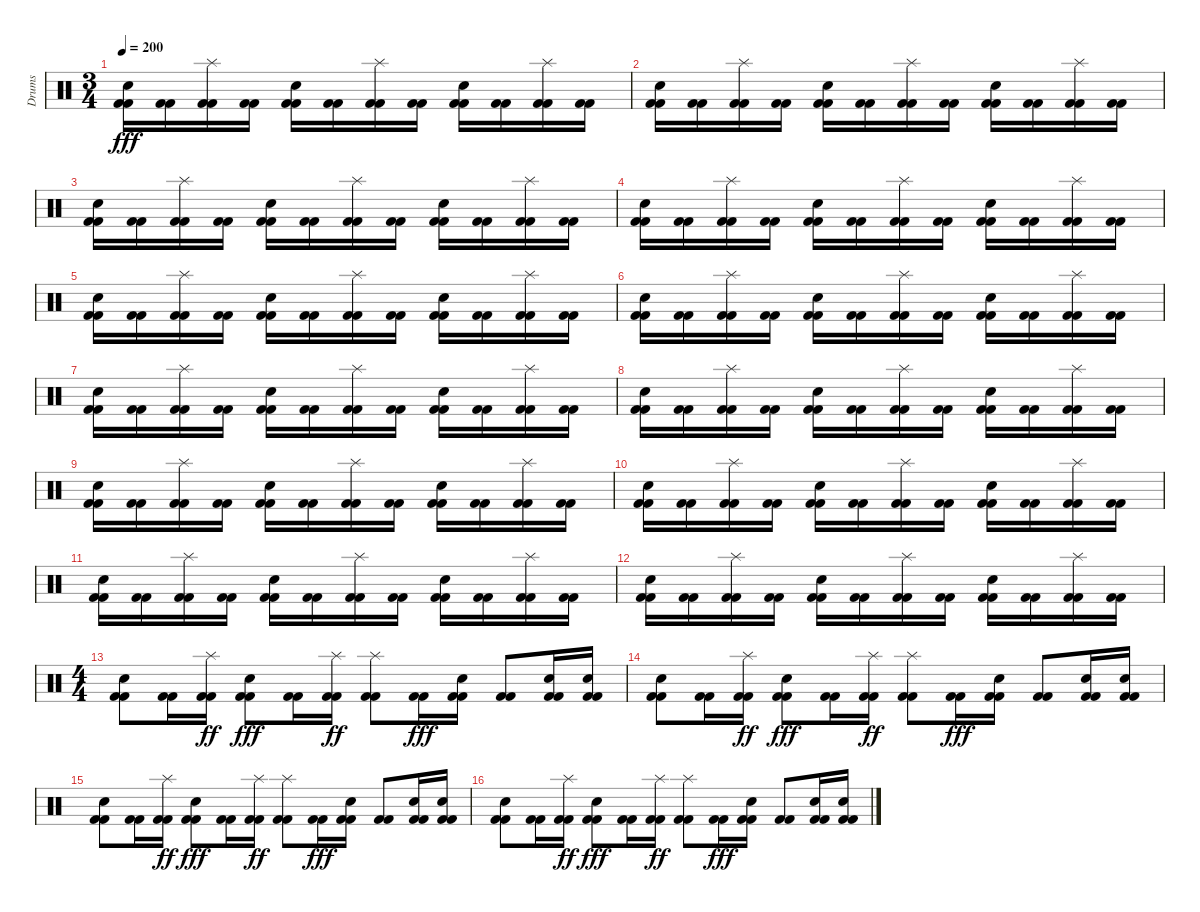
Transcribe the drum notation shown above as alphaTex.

\track ("Drums" "Drums") {instrument percussion}
\staff {score}
\articulation defaults
\ts (3 4)
\tempo 200
\clef neutral
\ks c
("Electric Snare (hit)" "Kick (hit) 2" "Kick (hit) 2").16{dy fff} ("Kick (hit) 2" "Kick (hit) 2").16 ("Splash (hit)" "Kick (hit) 2" "Kick (hit) 2").16 ("Kick (hit) 2" "Kick (hit) 2").16 ("Electric Snare (hit)" "Kick (hit) 2" "Kick (hit) 2").16 ("Kick (hit) 2" "Kick (hit) 2").16 ("Splash (hit)" "Kick (hit) 2" "Kick (hit) 2").16 ("Kick (hit) 2" "Kick (hit) 2").16 ("Electric Snare (hit)" "Kick (hit) 2" "Kick (hit) 2").16 ("Kick (hit) 2" "Kick (hit) 2").16 ("Splash (hit)" "Kick (hit) 2" "Kick (hit) 2").16 ("Kick (hit) 2" "Kick (hit) 2").16 |
("Electric Snare (hit)" "Kick (hit) 2" "Kick (hit) 2").16 ("Kick (hit) 2" "Kick (hit) 2").16 ("Splash (hit)" "Kick (hit) 2" "Kick (hit) 2").16 ("Kick (hit) 2" "Kick (hit) 2").16 ("Electric Snare (hit)" "Kick (hit) 2" "Kick (hit) 2").16 ("Kick (hit) 2" "Kick (hit) 2").16 ("Splash (hit)" "Kick (hit) 2" "Kick (hit) 2").16 ("Kick (hit) 2" "Kick (hit) 2").16 ("Electric Snare (hit)" "Kick (hit) 2" "Kick (hit) 2").16 ("Kick (hit) 2" "Kick (hit) 2").16 ("Splash (hit)" "Kick (hit) 2" "Kick (hit) 2").16 ("Kick (hit) 2" "Kick (hit) 2").16 |
("Electric Snare (hit)" "Kick (hit) 2" "Kick (hit) 2").16 ("Kick (hit) 2" "Kick (hit) 2").16 ("Splash (hit)" "Kick (hit) 2" "Kick (hit) 2").16 ("Kick (hit) 2" "Kick (hit) 2").16 ("Electric Snare (hit)" "Kick (hit) 2" "Kick (hit) 2").16 ("Kick (hit) 2" "Kick (hit) 2").16 ("Splash (hit)" "Kick (hit) 2" "Kick (hit) 2").16 ("Kick (hit) 2" "Kick (hit) 2").16 ("Electric Snare (hit)" "Kick (hit) 2" "Kick (hit) 2").16 ("Kick (hit) 2" "Kick (hit) 2").16 ("Splash (hit)" "Kick (hit) 2" "Kick (hit) 2").16 ("Kick (hit) 2" "Kick (hit) 2").16 |
("Electric Snare (hit)" "Kick (hit) 2" "Kick (hit) 2").16 ("Kick (hit) 2" "Kick (hit) 2").16 ("Splash (hit)" "Kick (hit) 2" "Kick (hit) 2").16 ("Kick (hit) 2" "Kick (hit) 2").16 ("Electric Snare (hit)" "Kick (hit) 2" "Kick (hit) 2").16 ("Kick (hit) 2" "Kick (hit) 2").16 ("Splash (hit)" "Kick (hit) 2" "Kick (hit) 2").16 ("Kick (hit) 2" "Kick (hit) 2").16 ("Electric Snare (hit)" "Kick (hit) 2" "Kick (hit) 2").16 ("Kick (hit) 2" "Kick (hit) 2").16 ("Splash (hit)" "Kick (hit) 2" "Kick (hit) 2").16 ("Kick (hit) 2" "Kick (hit) 2").16 |
("Electric Snare (hit)" "Kick (hit) 2" "Kick (hit) 2").16 ("Kick (hit) 2" "Kick (hit) 2").16 ("Splash (hit)" "Kick (hit) 2" "Kick (hit) 2").16 ("Kick (hit) 2" "Kick (hit) 2").16 ("Electric Snare (hit)" "Kick (hit) 2" "Kick (hit) 2").16 ("Kick (hit) 2" "Kick (hit) 2").16 ("Splash (hit)" "Kick (hit) 2" "Kick (hit) 2").16 ("Kick (hit) 2" "Kick (hit) 2").16 ("Electric Snare (hit)" "Kick (hit) 2" "Kick (hit) 2").16 ("Kick (hit) 2" "Kick (hit) 2").16 ("Splash (hit)" "Kick (hit) 2" "Kick (hit) 2").16 ("Kick (hit) 2" "Kick (hit) 2").16 |
("Electric Snare (hit)" "Kick (hit) 2" "Kick (hit) 2").16 ("Kick (hit) 2" "Kick (hit) 2").16 ("Splash (hit)" "Kick (hit) 2" "Kick (hit) 2").16 ("Kick (hit) 2" "Kick (hit) 2").16 ("Electric Snare (hit)" "Kick (hit) 2" "Kick (hit) 2").16 ("Kick (hit) 2" "Kick (hit) 2").16 ("Splash (hit)" "Kick (hit) 2" "Kick (hit) 2").16 ("Kick (hit) 2" "Kick (hit) 2").16 ("Electric Snare (hit)" "Kick (hit) 2" "Kick (hit) 2").16 ("Kick (hit) 2" "Kick (hit) 2").16 ("Splash (hit)" "Kick (hit) 2" "Kick (hit) 2").16 ("Kick (hit) 2" "Kick (hit) 2").16 |
("Electric Snare (hit)" "Kick (hit) 2" "Kick (hit) 2").16 ("Kick (hit) 2" "Kick (hit) 2").16 ("Splash (hit)" "Kick (hit) 2" "Kick (hit) 2").16 ("Kick (hit) 2" "Kick (hit) 2").16 ("Electric Snare (hit)" "Kick (hit) 2" "Kick (hit) 2").16 ("Kick (hit) 2" "Kick (hit) 2").16 ("Splash (hit)" "Kick (hit) 2" "Kick (hit) 2").16 ("Kick (hit) 2" "Kick (hit) 2").16 ("Electric Snare (hit)" "Kick (hit) 2" "Kick (hit) 2").16 ("Kick (hit) 2" "Kick (hit) 2").16 ("Splash (hit)" "Kick (hit) 2" "Kick (hit) 2").16 ("Kick (hit) 2" "Kick (hit) 2").16 |
("Electric Snare (hit)" "Kick (hit) 2" "Kick (hit) 2").16 ("Kick (hit) 2" "Kick (hit) 2").16 ("Splash (hit)" "Kick (hit) 2" "Kick (hit) 2").16 ("Kick (hit) 2" "Kick (hit) 2").16 ("Electric Snare (hit)" "Kick (hit) 2" "Kick (hit) 2").16 ("Kick (hit) 2" "Kick (hit) 2").16 ("Splash (hit)" "Kick (hit) 2" "Kick (hit) 2").16 ("Kick (hit) 2" "Kick (hit) 2").16 ("Electric Snare (hit)" "Kick (hit) 2" "Kick (hit) 2").16 ("Kick (hit) 2" "Kick (hit) 2").16 ("Splash (hit)" "Kick (hit) 2" "Kick (hit) 2").16 ("Kick (hit) 2" "Kick (hit) 2").16 |
("Electric Snare (hit)" "Kick (hit) 2" "Kick (hit) 2").16 ("Kick (hit) 2" "Kick (hit) 2").16 ("Splash (hit)" "Kick (hit) 2" "Kick (hit) 2").16 ("Kick (hit) 2" "Kick (hit) 2").16 ("Electric Snare (hit)" "Kick (hit) 2" "Kick (hit) 2").16 ("Kick (hit) 2" "Kick (hit) 2").16 ("Splash (hit)" "Kick (hit) 2" "Kick (hit) 2").16 ("Kick (hit) 2" "Kick (hit) 2").16 ("Electric Snare (hit)" "Kick (hit) 2" "Kick (hit) 2").16 ("Kick (hit) 2" "Kick (hit) 2").16 ("Splash (hit)" "Kick (hit) 2" "Kick (hit) 2").16 ("Kick (hit) 2" "Kick (hit) 2").16 |
("Electric Snare (hit)" "Kick (hit) 2" "Kick (hit) 2").16 ("Kick (hit) 2" "Kick (hit) 2").16 ("Splash (hit)" "Kick (hit) 2" "Kick (hit) 2").16 ("Kick (hit) 2" "Kick (hit) 2").16 ("Electric Snare (hit)" "Kick (hit) 2" "Kick (hit) 2").16 ("Kick (hit) 2" "Kick (hit) 2").16 ("Splash (hit)" "Kick (hit) 2" "Kick (hit) 2").16 ("Kick (hit) 2" "Kick (hit) 2").16 ("Electric Snare (hit)" "Kick (hit) 2" "Kick (hit) 2").16 ("Kick (hit) 2" "Kick (hit) 2").16 ("Splash (hit)" "Kick (hit) 2" "Kick (hit) 2").16 ("Kick (hit) 2" "Kick (hit) 2").16 |
("Electric Snare (hit)" "Kick (hit) 2" "Kick (hit) 2").16 ("Kick (hit) 2" "Kick (hit) 2").16 ("Splash (hit)" "Kick (hit) 2" "Kick (hit) 2").16 ("Kick (hit) 2" "Kick (hit) 2").16 ("Electric Snare (hit)" "Kick (hit) 2" "Kick (hit) 2").16 ("Kick (hit) 2" "Kick (hit) 2").16 ("Splash (hit)" "Kick (hit) 2" "Kick (hit) 2").16 ("Kick (hit) 2" "Kick (hit) 2").16 ("Electric Snare (hit)" "Kick (hit) 2" "Kick (hit) 2").16 ("Kick (hit) 2" "Kick (hit) 2").16 ("Splash (hit)" "Kick (hit) 2" "Kick (hit) 2").16 ("Kick (hit) 2" "Kick (hit) 2").16 |
("Electric Snare (hit)" "Kick (hit) 2" "Kick (hit) 2").16 ("Kick (hit) 2" "Kick (hit) 2").16 ("Splash (hit)" "Kick (hit) 2" "Kick (hit) 2").16 ("Kick (hit) 2" "Kick (hit) 2").16 ("Electric Snare (hit)" "Kick (hit) 2" "Kick (hit) 2").16 ("Kick (hit) 2" "Kick (hit) 2").16 ("Splash (hit)" "Kick (hit) 2" "Kick (hit) 2").16 ("Kick (hit) 2" "Kick (hit) 2").16 ("Electric Snare (hit)" "Kick (hit) 2" "Kick (hit) 2").16 ("Kick (hit) 2" "Kick (hit) 2").16 ("Splash (hit)" "Kick (hit) 2" "Kick (hit) 2").16 ("Kick (hit) 2" "Kick (hit) 2").16 |
\ts (4 4)
("Kick (hit) 2" "Kick (hit) 2" "Electric Snare (hit)").8 ("Kick (hit) 2" "Kick (hit) 2").16 ("Kick (hit) 2" "Kick (hit) 2" "Splash (hit)").16{dy ff} ("Kick (hit) 2" "Kick (hit) 2" "Electric Snare (hit)").8{dy fff} ("Kick (hit) 2" "Kick (hit) 2").16 ("Kick (hit) 2" "Kick (hit) 2" "Splash (hit)").16{dy ff} ("Kick (hit) 2" "Kick (hit) 2" "Splash (hit)").8 ("Kick (hit) 2" "Kick (hit) 2").16{dy fff} ("Kick (hit) 2" "Kick (hit) 2" "Electric Snare (hit)").16 ("Kick (hit) 2" "Kick (hit) 2").8 ("Kick (hit) 2" "Kick (hit) 2" "Electric Snare (hit)").16 ("Kick (hit) 2" "Kick (hit) 2" "Electric Snare (hit)").16 |
("Kick (hit) 2" "Kick (hit) 2" "Electric Snare (hit)").8 ("Kick (hit) 2" "Kick (hit) 2").16 ("Kick (hit) 2" "Kick (hit) 2" "Splash (hit)").16{dy ff} ("Kick (hit) 2" "Kick (hit) 2" "Electric Snare (hit)").8{dy fff} ("Kick (hit) 2" "Kick (hit) 2").16 ("Kick (hit) 2" "Kick (hit) 2" "Splash (hit)").16{dy ff} ("Kick (hit) 2" "Kick (hit) 2" "Splash (hit)").8 ("Kick (hit) 2" "Kick (hit) 2").16{dy fff} ("Kick (hit) 2" "Kick (hit) 2" "Electric Snare (hit)").16 ("Kick (hit) 2" "Kick (hit) 2").8 ("Kick (hit) 2" "Kick (hit) 2" "Electric Snare (hit)").16 ("Kick (hit) 2" "Kick (hit) 2" "Electric Snare (hit)").16 |
("Kick (hit) 2" "Kick (hit) 2" "Electric Snare (hit)").8 ("Kick (hit) 2" "Kick (hit) 2").16 ("Kick (hit) 2" "Kick (hit) 2" "Splash (hit)").16{dy ff} ("Kick (hit) 2" "Kick (hit) 2" "Electric Snare (hit)").8{dy fff} ("Kick (hit) 2" "Kick (hit) 2").16 ("Kick (hit) 2" "Kick (hit) 2" "Splash (hit)").16{dy ff} ("Kick (hit) 2" "Kick (hit) 2" "Splash (hit)").8 ("Kick (hit) 2" "Kick (hit) 2").16{dy fff} ("Kick (hit) 2" "Kick (hit) 2" "Electric Snare (hit)").16 ("Kick (hit) 2" "Kick (hit) 2").8 ("Kick (hit) 2" "Kick (hit) 2" "Electric Snare (hit)").16 ("Kick (hit) 2" "Kick (hit) 2" "Electric Snare (hit)").16 |
("Kick (hit) 2" "Kick (hit) 2" "Electric Snare (hit)").8 ("Kick (hit) 2" "Kick (hit) 2").16 ("Kick (hit) 2" "Kick (hit) 2" "Splash (hit)").16{dy ff} ("Kick (hit) 2" "Kick (hit) 2" "Electric Snare (hit)").8{dy fff} ("Kick (hit) 2" "Kick (hit) 2").16 ("Kick (hit) 2" "Kick (hit) 2" "Splash (hit)").16{dy ff} ("Kick (hit) 2" "Kick (hit) 2" "Splash (hit)").8 ("Kick (hit) 2" "Kick (hit) 2").16{dy fff} ("Kick (hit) 2" "Kick (hit) 2" "Electric Snare (hit)").16 ("Kick (hit) 2" "Kick (hit) 2").8 ("Kick (hit) 2" "Kick (hit) 2" "Electric Snare (hit)").16 ("Kick (hit) 2" "Kick (hit) 2" "Electric Snare (hit)").16
